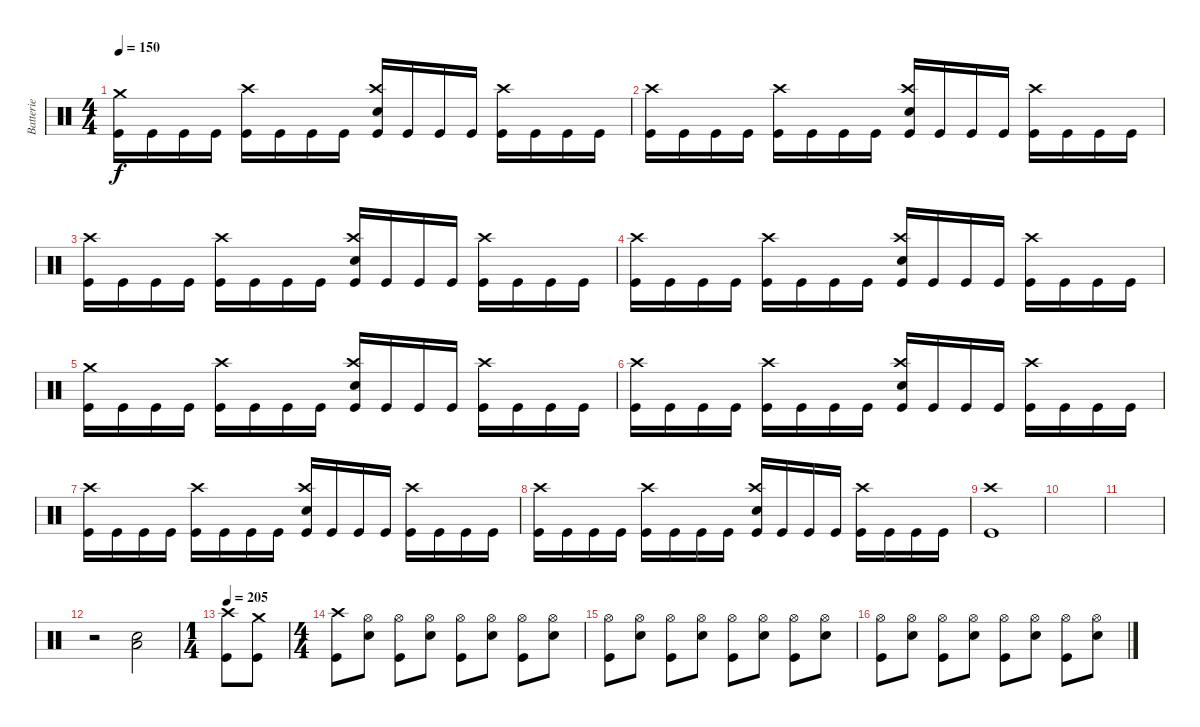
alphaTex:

\track ("Batterie" "Batterie") {instrument percussion}
\staff {score}
\articulation defaults
\ts (4 4)
\tempo 150
\clef neutral
\ks c
("Crash medium (hit)" "Kick (hit)").16{dy f} "Kick (hit)".16 "Kick (hit)".16 "Kick (hit)".16 ("Crash high (hit)" "Kick (hit)").16 "Kick (hit)".16 "Kick (hit)".16 "Kick (hit)".16 ("Crash high (hit)" "Electric Snare (hit)" "Kick (hit)").16 "Kick (hit)".16 "Kick (hit)".16 "Kick (hit)".16 ("Crash high (hit)" "Kick (hit)").16 "Kick (hit)".16 "Kick (hit)".16 "Kick (hit)".16 |
("Crash high (hit)" "Kick (hit)").16 "Kick (hit)".16 "Kick (hit)".16 "Kick (hit)".16 ("Crash high (hit)" "Kick (hit)").16 "Kick (hit)".16 "Kick (hit)".16 "Kick (hit)".16 ("Crash high (hit)" "Electric Snare (hit)" "Kick (hit)").16 "Kick (hit)".16 "Kick (hit)".16 "Kick (hit)".16 ("Crash high (hit)" "Kick (hit)").16 "Kick (hit)".16 "Kick (hit)".16 "Kick (hit)".16 |
("Crash high (hit)" "Kick (hit)").16 "Kick (hit)".16 "Kick (hit)".16 "Kick (hit)".16 ("Crash high (hit)" "Kick (hit)").16 "Kick (hit)".16 "Kick (hit)".16 "Kick (hit)".16 ("Crash high (hit)" "Electric Snare (hit)" "Kick (hit)").16 "Kick (hit)".16 "Kick (hit)".16 "Kick (hit)".16 ("Crash high (hit)" "Kick (hit)").16 "Kick (hit)".16 "Kick (hit)".16 "Kick (hit)".16 |
("Crash high (hit)" "Kick (hit)").16 "Kick (hit)".16 "Kick (hit)".16 "Kick (hit)".16 ("Crash high (hit)" "Kick (hit)").16 "Kick (hit)".16 "Kick (hit)".16 "Kick (hit)".16 ("Crash high (hit)" "Electric Snare (hit)" "Kick (hit)").16 "Kick (hit)".16 "Kick (hit)".16 "Kick (hit)".16 ("Crash high (hit)" "Kick (hit)").16 "Kick (hit)".16 "Kick (hit)".16 "Kick (hit)".16 |
("Crash medium (hit)" "Kick (hit)").16 "Kick (hit)".16 "Kick (hit)".16 "Kick (hit)".16 ("Crash high (hit)" "Kick (hit)").16 "Kick (hit)".16 "Kick (hit)".16 "Kick (hit)".16 ("Crash high (hit)" "Electric Snare (hit)" "Kick (hit)").16 "Kick (hit)".16 "Kick (hit)".16 "Kick (hit)".16 ("Crash high (hit)" "Kick (hit)").16 "Kick (hit)".16 "Kick (hit)".16 "Kick (hit)".16 |
("Crash high (hit)" "Kick (hit)").16 "Kick (hit)".16 "Kick (hit)".16 "Kick (hit)".16 ("Crash high (hit)" "Kick (hit)").16 "Kick (hit)".16 "Kick (hit)".16 "Kick (hit)".16 ("Crash high (hit)" "Electric Snare (hit)" "Kick (hit)").16 "Kick (hit)".16 "Kick (hit)".16 "Kick (hit)".16 ("Crash high (hit)" "Kick (hit)").16 "Kick (hit)".16 "Kick (hit)".16 "Kick (hit)".16 |
("Crash high (hit)" "Kick (hit)").16 "Kick (hit)".16 "Kick (hit)".16 "Kick (hit)".16 ("Crash high (hit)" "Kick (hit)").16 "Kick (hit)".16 "Kick (hit)".16 "Kick (hit)".16 ("Crash high (hit)" "Electric Snare (hit)" "Kick (hit)").16 "Kick (hit)".16 "Kick (hit)".16 "Kick (hit)".16 ("Crash high (hit)" "Kick (hit)").16 "Kick (hit)".16 "Kick (hit)".16 "Kick (hit)".16 |
("Crash high (hit)" "Kick (hit)").16 "Kick (hit)".16 "Kick (hit)".16 "Kick (hit)".16 ("Crash high (hit)" "Kick (hit)").16 "Kick (hit)".16 "Kick (hit)".16 "Kick (hit)".16 ("Crash high (hit)" "Electric Snare (hit)" "Kick (hit)").16 "Kick (hit)".16 "Kick (hit)".16 "Kick (hit)".16 ("Crash high (hit)" "Kick (hit)").16 "Kick (hit)".16 "Kick (hit)".16 "Kick (hit)".16 |
("Crash high (hit)" "Kick (hit)").1 |
|
|
r.2 ("Electric Snare (hit)" "Low Floor Tom (hit)").2 |
\ts (1 4)
\tempo 205
("Crash high (hit)" "Kick (hit)").8 ("Crash medium (hit)" "Kick (hit)").8 |
\ts (4 4)
("Crash high (hit)" "Kick (hit)").8 ("Hi-Hat (open)" "Electric Snare (hit)").8 ("Hi-Hat (open)" "Kick (hit)").8 ("Hi-Hat (open)" "Electric Snare (hit)").8 ("Hi-Hat (open)" "Kick (hit)").8 ("Hi-Hat (open)" "Electric Snare (hit)").8 ("Hi-Hat (open)" "Kick (hit)").8 ("Hi-Hat (open)" "Electric Snare (hit)").8 |
("Hi-Hat (open)" "Kick (hit)").8 ("Hi-Hat (open)" "Electric Snare (hit)").8 ("Hi-Hat (open)" "Kick (hit)").8 ("Hi-Hat (open)" "Electric Snare (hit)").8 ("Hi-Hat (open)" "Kick (hit)").8 ("Hi-Hat (open)" "Electric Snare (hit)").8 ("Hi-Hat (open)" "Kick (hit)").8 ("Hi-Hat (open)" "Electric Snare (hit)").8 |
("Hi-Hat (open)" "Kick (hit)").8 ("Hi-Hat (open)" "Electric Snare (hit)").8 ("Hi-Hat (open)" "Kick (hit)").8 ("Hi-Hat (open)" "Electric Snare (hit)").8 ("Hi-Hat (open)" "Kick (hit)").8 ("Hi-Hat (open)" "Electric Snare (hit)").8 ("Hi-Hat (open)" "Kick (hit)").8 ("Hi-Hat (open)" "Electric Snare (hit)").8
